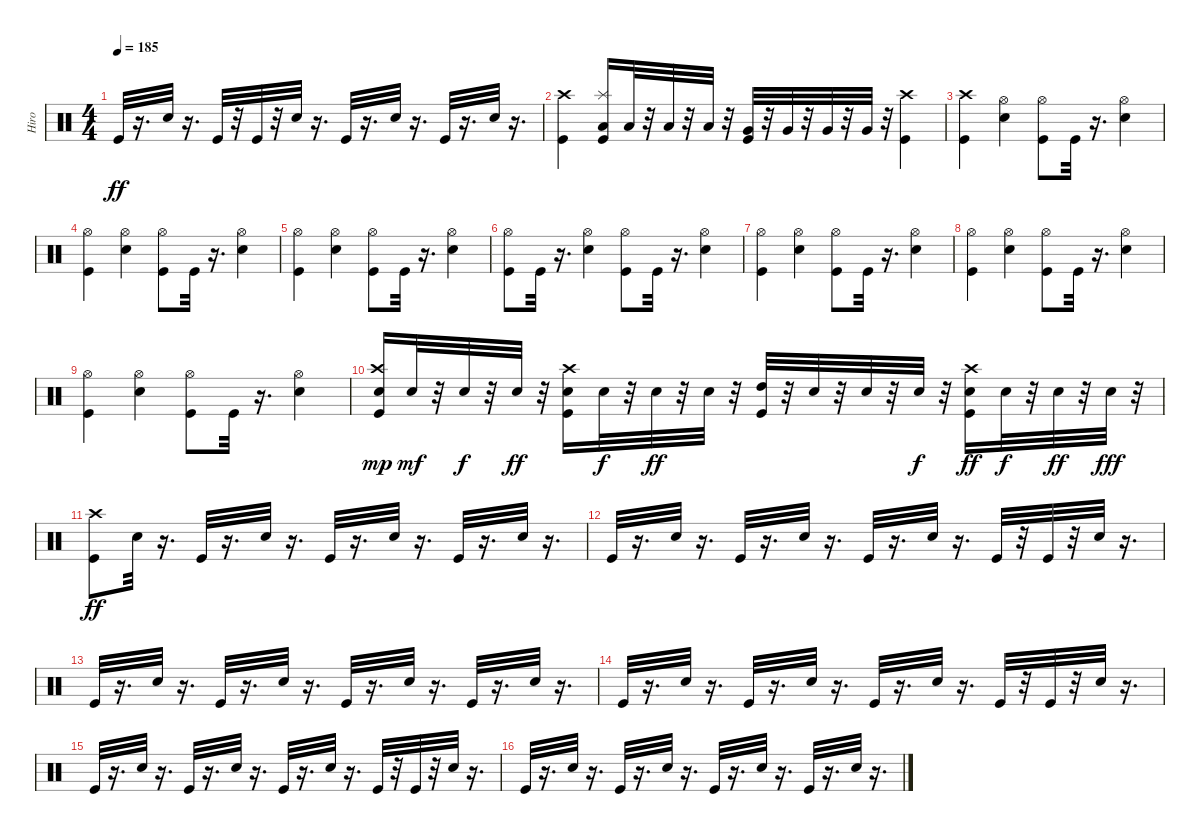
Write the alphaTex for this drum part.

\track ("Hiro" "Hiro") {instrument percussion}
\staff {score}
\articulation defaults
\ts (4 4)
\tempo 185
\clef neutral
\ks c "Kick (hit)".32{dy ff}
r.16{d} "Electric Snare (hit)".32 r.16{d} "Kick (hit)".32 r.32 "Kick (hit)".32 r.32 "Electric Snare (hit)".32 r.16{d} "Kick (hit)".32 r.16{d} "Electric Snare (hit)".32 r.16{d} "Kick (hit)".32 r.16{d} "Electric Snare (hit)".32 r.16{d} |
("Crash high (hit)" "Kick (hit)").4 ("Splash (hit)" "Low Tom (hit)" "Kick (hit)").16 "Low Tom (hit)".32 r.32 "Low Tom (hit)".32 r.32 "Low Tom (hit)".32 r.32 ("Very Low Tom (hit)" "Kick (hit)").32 r.32 "Very Low Tom (hit)".32 r.32 "Very Low Tom (hit)".32 r.32 "Very Low Tom (hit)".32 r.32 ("Crash high (hit)" "Kick (hit)").4 |
("Crash high (hit)" "Kick (hit)").4 ("Hi-Hat (open)" "Electric Snare (hit)").4 ("Hi-Hat (open)" "Kick (hit)").8 "Kick (hit)".32 r.16{d} ("Hi-Hat (open)" "Electric Snare (hit)").4 |
("Hi-Hat (open)" "Kick (hit)").4 ("Hi-Hat (open)" "Electric Snare (hit)").4 ("Hi-Hat (open)" "Kick (hit)").8 "Kick (hit)".32 r.16{d} ("Hi-Hat (open)" "Electric Snare (hit)").4 |
("Hi-Hat (open)" "Kick (hit)").4 ("Hi-Hat (open)" "Electric Snare (hit)").4 ("Hi-Hat (open)" "Kick (hit)").8 "Kick (hit)".32 r.16{d} ("Hi-Hat (open)" "Electric Snare (hit)").4 |
("Hi-Hat (open)" "Kick (hit)").8 "Kick (hit)".32 r.16{d} ("Hi-Hat (open)" "Electric Snare (hit)").4 ("Hi-Hat (open)" "Kick (hit)").8 "Kick (hit)".32 r.16{d} ("Hi-Hat (open)" "Electric Snare (hit)").4 |
("Hi-Hat (open)" "Kick (hit)").4 ("Hi-Hat (open)" "Electric Snare (hit)").4 ("Hi-Hat (open)" "Kick (hit)").8 "Kick (hit)".32 r.16{d} ("Hi-Hat (open)" "Electric Snare (hit)").4 |
("Hi-Hat (open)" "Kick (hit)").4 ("Hi-Hat (open)" "Electric Snare (hit)").4 ("Hi-Hat (open)" "Kick (hit)").8 "Kick (hit)".32 r.16{d} ("Hi-Hat (open)" "Electric Snare (hit)").4 |
("Hi-Hat (open)" "Kick (hit)").4 ("Hi-Hat (open)" "Electric Snare (hit)").4 ("Hi-Hat (open)" "Kick (hit)").8 "Kick (hit)".32 r.16{d} ("Hi-Hat (open)" "Electric Snare (hit)").4 |
("Crash high (hit)" "Kick (hit)" "Snare (hit) 2").16{dy mp} "Electric Snare (hit)".32{dy mf} r.32 "Electric Snare (hit)".32{dy f} r.32 "Electric Snare (hit)".32{dy ff} r.32 ("Crash high (hit)" "Electric Snare (hit)" "Kick (hit)").16 "Electric Snare (hit)".32{dy f} r.32 "Electric Snare (hit)".32{dy ff} r.32 "Electric Snare (hit)".32 r.32 ("High Tom (hit)" "Kick (hit)").32 r.32 "Electric Snare (hit)".32 r.32 "Electric Snare (hit)".32 r.32 "Electric Snare (hit)".32{dy f} r.32 ("Crash high (hit)" "Electric Snare (hit)" "Kick (hit)").16{dy ff} "Electric Snare (hit)".32{dy f} r.32 "Electric Snare (hit)".32{dy ff} r.32 "Electric Snare (hit)".32{dy fff} r.32 |
("Crash high (hit)" "Kick (hit)").8{dy ff} "Electric Snare (hit)".32 r.16{d} "Kick (hit)".32 r.16{d} "Electric Snare (hit)".32 r.16{d} "Kick (hit)".32 r.16{d} "Electric Snare (hit)".32 r.16{d} "Kick (hit)".32 r.16{d} "Electric Snare (hit)".32 r.16{d} |
"Kick (hit)".32 r.16{d} "Electric Snare (hit)".32 r.16{d} "Kick (hit)".32 r.16{d} "Electric Snare (hit)".32 r.16{d} "Kick (hit)".32 r.16{d} "Electric Snare (hit)".32 r.16{d} "Kick (hit)".32 r.32 "Kick (hit)".32 r.32 "Electric Snare (hit)".32 r.16{d} |
"Kick (hit)".32 r.16{d} "Electric Snare (hit)".32 r.16{d} "Kick (hit)".32 r.16{d} "Electric Snare (hit)".32 r.16{d} "Kick (hit)".32 r.16{d} "Electric Snare (hit)".32 r.16{d} "Kick (hit)".32 r.16{d} "Electric Snare (hit)".32 r.16{d} |
"Kick (hit)".32 r.16{d} "Electric Snare (hit)".32 r.16{d} "Kick (hit)".32 r.16{d} "Electric Snare (hit)".32 r.16{d} "Kick (hit)".32 r.16{d} "Electric Snare (hit)".32 r.16{d} "Kick (hit)".32 r.32 "Kick (hit)".32 r.32 "Electric Snare (hit)".32 r.16{d} |
"Kick (hit)".32 r.16{d} "Electric Snare (hit)".32 r.16{d} "Kick (hit)".32 r.16{d} "Electric Snare (hit)".32 r.16{d} "Kick (hit)".32 r.16{d} "Electric Snare (hit)".32 r.16{d} "Kick (hit)".32 r.32 "Kick (hit)".32 r.32 "Electric Snare (hit)".32 r.16{d} |
"Kick (hit)".32 r.16{d} "Electric Snare (hit)".32 r.16{d} "Kick (hit)".32 r.16{d} "Electric Snare (hit)".32 r.16{d} "Kick (hit)".32 r.16{d} "Electric Snare (hit)".32 r.16{d} "Kick (hit)".32 r.16{d} "Electric Snare (hit)".32 r.16{d}
